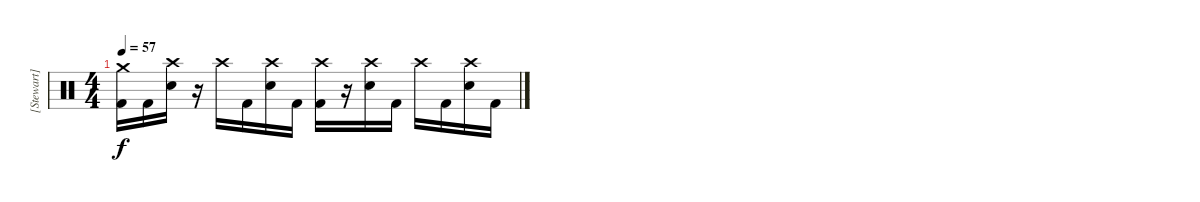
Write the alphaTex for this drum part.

\track ("[Stewart]" "[Stewart]") {instrument percussion}
\staff {score}
\articulation defaults
\ts (4 4)
\tempo 57
\clef neutral
\ks c
("Kick (hit) 2" "Crash medium (hit)").16{dy f} "Kick (hit) 2".16 ("Electric Snare (hit)" "Crash high (hit)").16 r.16 "Crash high (hit)".16 "Kick (hit) 2".16 ("Electric Snare (hit)" "Crash high (hit)").16 "Kick (hit) 2".16 ("Kick (hit) 2" "Crash high (hit)").16 r.16 ("Electric Snare (hit)" "Crash high (hit)").16 "Kick (hit) 2".16 "Crash high (hit)".16 "Kick (hit) 2".16 ("Electric Snare (hit)" "Crash high (hit)").16 "Kick (hit) 2".16
